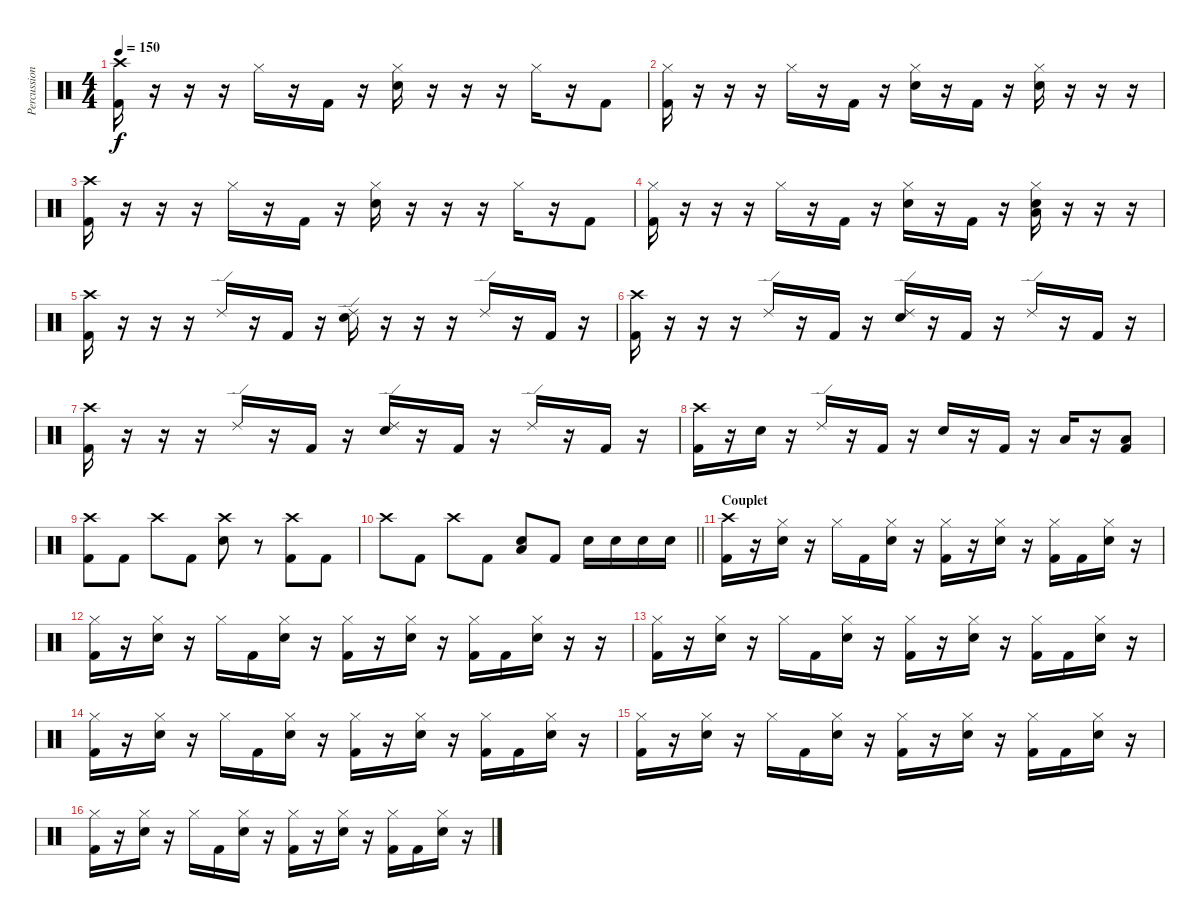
\track ("Percussion" "Percussion") {instrument percussion}
\staff {score}
\articulation defaults
\ts (4 4)
\tempo 150
\clef neutral
\ks c
("Crash high (hit)" "Kick (hit) 2").16{dy f} r.16 r.16 r.16 "Hi-Hat (closed)".16 r.16 "Kick (hit) 2".16 r.16 ("Hi-Hat (closed)" "Electric Snare (hit)").16 r.16 r.16 r.16 "Hi-Hat (closed)".16 r.16 "Kick (hit) 2".8 |
("Hi-Hat (closed)" "Kick (hit) 2").16 r.16 r.16 r.16 "Hi-Hat (closed)".16 r.16 "Kick (hit) 2".16 r.16 ("Hi-Hat (closed)" "Electric Snare (hit)").16 r.16 "Kick (hit) 2".16 r.16 ("Hi-Hat (closed)" "Electric Snare (hit)").16 r.16 r.16 r.16 |
("Crash high (hit)" "Kick (hit) 2").16 r.16 r.16 r.16 "Hi-Hat (closed)".16 r.16 "Kick (hit) 2".16 r.16 ("Hi-Hat (closed)" "Electric Snare (hit)").16 r.16 r.16 r.16 "Hi-Hat (closed)".16 r.16 "Kick (hit) 2".8 |
("Hi-Hat (closed)" "Kick (hit) 2").16 r.16 r.16 r.16 "Hi-Hat (closed)".16 r.16 "Kick (hit) 2".16 r.16 ("Hi-Hat (closed)" "Electric Snare (hit)").16 r.16 "Kick (hit) 2".16 r.16 ("Hi-Hat (closed)" "Electric Snare (hit)" "Low Floor Tom (hit)").16 r.16 r.16 r.16 |
("Crash high (hit)" "Kick (hit) 2").16 r.16 r.16 r.16 "Ride (edge) 2".16 r.16 "Kick (hit) 2".16 r.16 ("Ride (edge) 2" "Electric Snare (hit)").16 r.16 r.16 r.16 "Ride (edge) 2".16 r.16 "Kick (hit) 2".16 r.16 |
("Crash high (hit)" "Kick (hit) 2").16 r.16 r.16 r.16 "Ride (edge) 2".16 r.16 "Kick (hit) 2".16 r.16 ("Ride (edge) 2" "Electric Snare (hit)").16 r.16 "Kick (hit) 2".16 r.16 "Ride (edge) 2".16 r.16 "Kick (hit) 2".16 r.16 |
("Crash high (hit)" "Kick (hit) 2").16 r.16 r.16 r.16 "Ride (edge) 2".16 r.16 "Kick (hit) 2".16 r.16 ("Ride (edge) 2" "Electric Snare (hit)").16 r.16 "Kick (hit) 2".16 r.16 "Ride (edge) 2".16 r.16 "Kick (hit) 2".16 r.16 |
("Crash high (hit)" "Kick (hit) 2").16 r.16 "Electric Snare (hit)".16 r.16 "Ride (edge) 2".16 r.16 "Kick (hit) 2".16 r.16 "Electric Snare (hit)".16 r.16 "Kick (hit) 2".16 r.16 "Low Tom (hit)".16 r.16 ("Low Tom (hit)" "Kick (hit) 2").8 |
("Crash high (hit)" "Kick (hit) 2").8 "Kick (hit) 2".8 "Crash high (hit)".8 "Kick (hit) 2".8 ("Crash high (hit)" "Electric Snare (hit)").8 r.8 ("Crash high (hit)" "Kick (hit) 2").8 "Kick (hit) 2".8 |
\barLineRight lightlight "Crash high (hit)".8 "Kick (hit) 2".8 "Crash high (hit)".8 "Kick (hit) 2".8
("Electric Snare (hit)" "Low Tom (hit)").8 "Kick (hit) 2".8 "Electric Snare (hit)".16 "Electric Snare (hit)".16 "Electric Snare (hit)".16 "Electric Snare (hit)".16 |
\section ("" "Couplet")
("Crash high (hit)" "Kick (hit) 2").16 r.16 ("Hi-Hat (closed)" "Electric Snare (hit)").16 r.16 "Hi-Hat (closed)".16 "Kick (hit) 2".16 ("Hi-Hat (closed)" "Electric Snare (hit)").16 r.16 ("Hi-Hat (closed)" "Kick (hit) 2").16 r.16 ("Hi-Hat (closed)" "Electric Snare (hit)").16 r.16 ("Hi-Hat (closed)" "Kick (hit) 2").16 "Kick (hit) 2".16 ("Hi-Hat (closed)" "Electric Snare (hit)").16 r.16 |
("Hi-Hat (closed)" "Kick (hit) 2").16 r.16 ("Hi-Hat (closed)" "Electric Snare (hit)").16 r.16 "Hi-Hat (closed)".16 "Kick (hit) 2".16 ("Hi-Hat (closed)" "Electric Snare (hit)").16 r.16 ("Hi-Hat (closed)" "Kick (hit) 2").16 r.16 ("Hi-Hat (closed)" "Electric Snare (hit)").16 r.16 ("Hi-Hat (closed)" "Kick (hit) 2").16 "Kick (hit) 2".16 ("Hi-Hat (closed)" "Electric Snare (hit)").16 r.16 r.16 |
("Hi-Hat (closed)" "Kick (hit) 2").16 r.16 ("Hi-Hat (closed)" "Electric Snare (hit)").16 r.16 "Hi-Hat (closed)".16 "Kick (hit) 2".16 ("Hi-Hat (closed)" "Electric Snare (hit)").16 r.16 ("Hi-Hat (closed)" "Kick (hit) 2").16 r.16 ("Hi-Hat (closed)" "Electric Snare (hit)").16 r.16 ("Hi-Hat (closed)" "Kick (hit) 2").16 "Kick (hit) 2".16 ("Hi-Hat (closed)" "Electric Snare (hit)").16 r.16 |
("Hi-Hat (closed)" "Kick (hit) 2").16 r.16 ("Hi-Hat (closed)" "Electric Snare (hit)").16 r.16 "Hi-Hat (closed)".16 "Kick (hit) 2".16 ("Hi-Hat (closed)" "Electric Snare (hit)").16 r.16 ("Hi-Hat (closed)" "Kick (hit) 2").16 r.16 ("Hi-Hat (closed)" "Electric Snare (hit)").16 r.16 ("Hi-Hat (closed)" "Kick (hit) 2").16 "Kick (hit) 2".16 ("Hi-Hat (closed)" "Electric Snare (hit)").16 r.16 |
("Hi-Hat (closed)" "Kick (hit) 2").16 r.16 ("Hi-Hat (closed)" "Electric Snare (hit)").16 r.16 "Hi-Hat (closed)".16 "Kick (hit) 2".16 ("Hi-Hat (closed)" "Electric Snare (hit)").16 r.16 ("Hi-Hat (closed)" "Kick (hit) 2").16 r.16 ("Hi-Hat (closed)" "Electric Snare (hit)").16 r.16 ("Hi-Hat (closed)" "Kick (hit) 2").16 "Kick (hit) 2".16 ("Hi-Hat (closed)" "Electric Snare (hit)").16 r.16 |
("Hi-Hat (closed)" "Kick (hit) 2").16 r.16 ("Hi-Hat (closed)" "Electric Snare (hit)").16 r.16 "Hi-Hat (closed)".16 "Kick (hit) 2".16 ("Hi-Hat (closed)" "Electric Snare (hit)").16 r.16 ("Hi-Hat (closed)" "Kick (hit) 2").16 r.16 ("Hi-Hat (closed)" "Electric Snare (hit)").16 r.16 ("Hi-Hat (closed)" "Kick (hit) 2").16 "Kick (hit) 2".16 ("Hi-Hat (closed)" "Electric Snare (hit)").16 r.16
